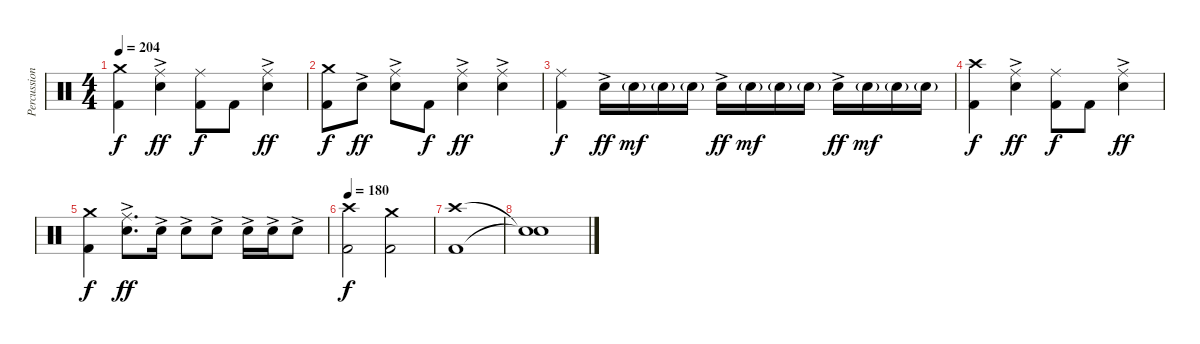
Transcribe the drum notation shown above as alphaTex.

\track ("Percussion" "Percussion") {instrument percussion}
\staff {score}
\articulation defaults
\ts (4 4)
\tempo 204
\clef neutral
\ks c
("Crash medium (hit)" "Kick (hit) 2").4{dy f} ("Ride (middle)" "Electric Snare (hit)"{ac}).4{dy ff} ("Ride (middle)" "Kick (hit) 2").8{dy f} "Kick (hit) 2".8 ("Ride (middle)" "Electric Snare (hit)"{ac}).4{dy ff} |
("Crash medium (hit)" "Kick (hit) 2").8{dy f} "Electric Snare (hit)"{ac}.8{dy ff} ("Ride (middle)" "Electric Snare (hit)"{ac}).8 "Kick (hit) 2".8{dy f} ("Ride (middle)" "Electric Snare (hit)"{ac}).4{dy ff} ("Ride (middle)" "Electric Snare (hit)"{ac}).4 |
("Ride (middle)" "Kick (hit) 2").4{dy f} "Electric Snare (hit)"{ac}.16{dy ff} "Electric Snare (hit)"{g}.16{dy mf} "Electric Snare (hit)"{g}.16 "Electric Snare (hit)"{g}.16 "Electric Snare (hit)"{ac}.16{dy ff} "Electric Snare (hit)"{g}.16{dy mf} "Electric Snare (hit)"{g}.16 "Electric Snare (hit)"{g}.16 "Electric Snare (hit)"{ac}.16{dy ff} "Electric Snare (hit)"{g}.16{dy mf} "Electric Snare (hit)"{g}.16 "Electric Snare (hit)"{g}.16 |
("Crash high (hit)" "Kick (hit) 2").4{dy f} ("Ride (middle)" "Electric Snare (hit)"{ac}).4{dy ff} ("Ride (middle)" "Kick (hit) 2").8{dy f} "Kick (hit) 2".8 ("Ride (middle)" "Electric Snare (hit)"{ac}).4{dy ff} |
("Crash medium (hit)" "Kick (hit) 2").4{dy f} ("Ride (middle)" "Electric Snare (hit)"{ac}).8{d dy ff} "Electric Snare (hit)"{ac}.16 "Electric Snare (hit)"{ac}.8 "Electric Snare (hit)"{ac}.8 "Electric Snare (hit)"{ac}.16 "Electric Snare (hit)"{ac}.16 "Electric Snare (hit)"{ac}.8 |
\tempo 180
("Crash high (hit)" "Kick (hit) 2").2{dy f} ("Crash medium (hit)" "Kick (hit) 2").2 |
("Crash high (hit)" "Kick (hit) 2").1 |
("Snare (hit)"{t} "Snare (hit)"{t}).1
